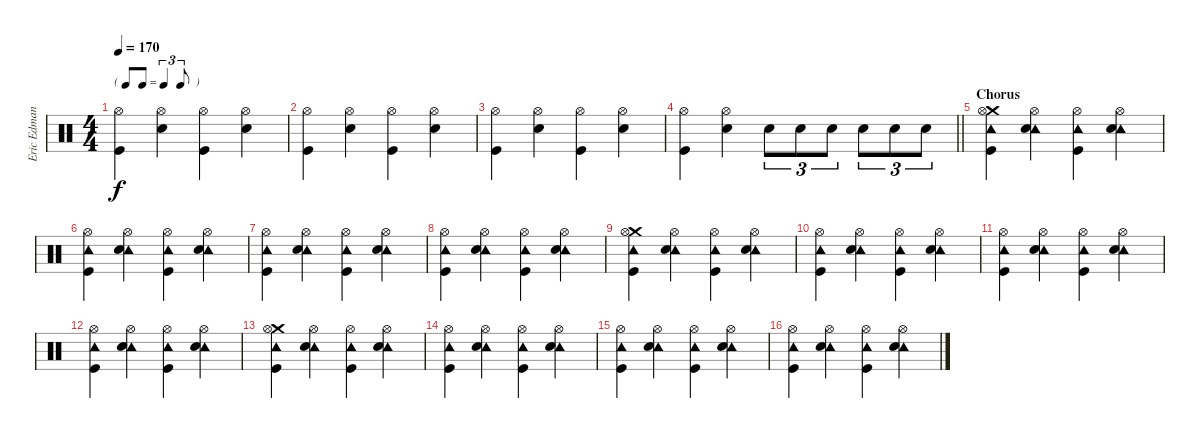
\track ("Eric Edman - Drums" "Eric Edman") {instrument percussion}
\staff {score}
\articulation defaults
\ts (4 4)
\tf triplet8th
\tempo 170
\clef neutral
\ks c
("Hi-Hat (open)" "Kick (hit)").4{dy f} ("Hi-Hat (open)" "Snare (hit) 2").4 ("Hi-Hat (open)" "Kick (hit)").4 ("Hi-Hat (open)" "Snare (hit) 2").4 |
("Hi-Hat (open)" "Kick (hit)").4 ("Hi-Hat (open)" "Snare (hit) 2").4 ("Hi-Hat (open)" "Kick (hit)").4 ("Hi-Hat (open)" "Snare (hit) 2").4 |
("Hi-Hat (open)" "Kick (hit)").4 ("Hi-Hat (open)" "Snare (hit) 2").4 ("Hi-Hat (open)" "Kick (hit)").4 ("Hi-Hat (open)" "Snare (hit) 2").4 |
\barLineRight lightlight
("Hi-Hat (open)" "Kick (hit)").4 ("Hi-Hat (open)" "Snare (hit) 2").4 "Snare (hit) 2".8{tu (3 2)} "Snare (hit) 2".8{tu (3 2)} "Snare (hit) 2".8{tu (3 2)} "Snare (hit) 2".8{tu (3 2)} "Snare (hit) 2".8{tu (3 2)} "Snare (hit) 2".8{tu (3 2)} |
\section ("" "Chorus")
("Crash medium (hit)" "Tambourine (hit)" "Kick (hit)" "Hi-Hat (open)").4 ("Tambourine (hit)" "Snare (hit) 2" "Hi-Hat (open)").4 ("Tambourine (hit)" "Kick (hit)" "Hi-Hat (open)").4 ("Tambourine (hit)" "Snare (hit) 2" "Hi-Hat (open)").4 |
("Tambourine (hit)" "Kick (hit)" "Hi-Hat (open)").4 ("Tambourine (hit)" "Snare (hit) 2" "Hi-Hat (open)").4 ("Tambourine (hit)" "Kick (hit)" "Hi-Hat (open)").4 ("Tambourine (hit)" "Snare (hit) 2" "Hi-Hat (open)").4 |
("Tambourine (hit)" "Kick (hit)" "Hi-Hat (open)").4 ("Tambourine (hit)" "Snare (hit) 2" "Hi-Hat (open)").4 ("Tambourine (hit)" "Kick (hit)" "Hi-Hat (open)").4 ("Tambourine (hit)" "Snare (hit) 2" "Hi-Hat (open)").4 |
("Tambourine (hit)" "Kick (hit)" "Hi-Hat (open)").4 ("Tambourine (hit)" "Snare (hit) 2" "Hi-Hat (open)").4 ("Tambourine (hit)" "Kick (hit)" "Hi-Hat (open)").4 ("Tambourine (hit)" "Snare (hit) 2" "Hi-Hat (open)").4 |
("Crash medium (hit)" "Tambourine (hit)" "Kick (hit)" "Hi-Hat (open)").4 ("Tambourine (hit)" "Snare (hit) 2" "Hi-Hat (open)").4 ("Tambourine (hit)" "Kick (hit)" "Hi-Hat (open)").4 ("Tambourine (hit)" "Snare (hit) 2" "Hi-Hat (open)").4 |
("Tambourine (hit)" "Kick (hit)" "Hi-Hat (open)").4 ("Tambourine (hit)" "Snare (hit) 2" "Hi-Hat (open)").4 ("Tambourine (hit)" "Kick (hit)" "Hi-Hat (open)").4 ("Tambourine (hit)" "Snare (hit) 2" "Hi-Hat (open)").4 |
("Tambourine (hit)" "Kick (hit)" "Hi-Hat (open)").4 ("Tambourine (hit)" "Snare (hit) 2" "Hi-Hat (open)").4 ("Tambourine (hit)" "Kick (hit)" "Hi-Hat (open)").4 ("Tambourine (hit)" "Snare (hit) 2" "Hi-Hat (open)").4 |
("Tambourine (hit)" "Kick (hit)" "Hi-Hat (open)").4 ("Tambourine (hit)" "Snare (hit) 2" "Hi-Hat (open)").4 ("Tambourine (hit)" "Kick (hit)" "Hi-Hat (open)").4 ("Tambourine (hit)" "Snare (hit) 2" "Hi-Hat (open)").4 |
("Crash medium (hit)" "Tambourine (hit)" "Kick (hit)" "Hi-Hat (open)").4 ("Tambourine (hit)" "Snare (hit) 2" "Hi-Hat (open)").4 ("Tambourine (hit)" "Kick (hit)" "Hi-Hat (open)").4 ("Tambourine (hit)" "Snare (hit) 2" "Hi-Hat (open)").4 |
("Tambourine (hit)" "Kick (hit)" "Hi-Hat (open)").4 ("Tambourine (hit)" "Snare (hit) 2" "Hi-Hat (open)").4 ("Tambourine (hit)" "Kick (hit)" "Hi-Hat (open)").4 ("Tambourine (hit)" "Snare (hit) 2" "Hi-Hat (open)").4 |
("Tambourine (hit)" "Kick (hit)" "Hi-Hat (open)").4 ("Tambourine (hit)" "Snare (hit) 2" "Hi-Hat (open)").4 ("Tambourine (hit)" "Kick (hit)" "Hi-Hat (open)").4 ("Tambourine (hit)" "Snare (hit) 2" "Hi-Hat (open)").4 |
("Tambourine (hit)" "Kick (hit)" "Hi-Hat (open)").4 ("Tambourine (hit)" "Snare (hit) 2" "Hi-Hat (open)").4 ("Tambourine (hit)" "Kick (hit)" "Hi-Hat (open)").4 ("Tambourine (hit)" "Snare (hit) 2" "Hi-Hat (open)").4
